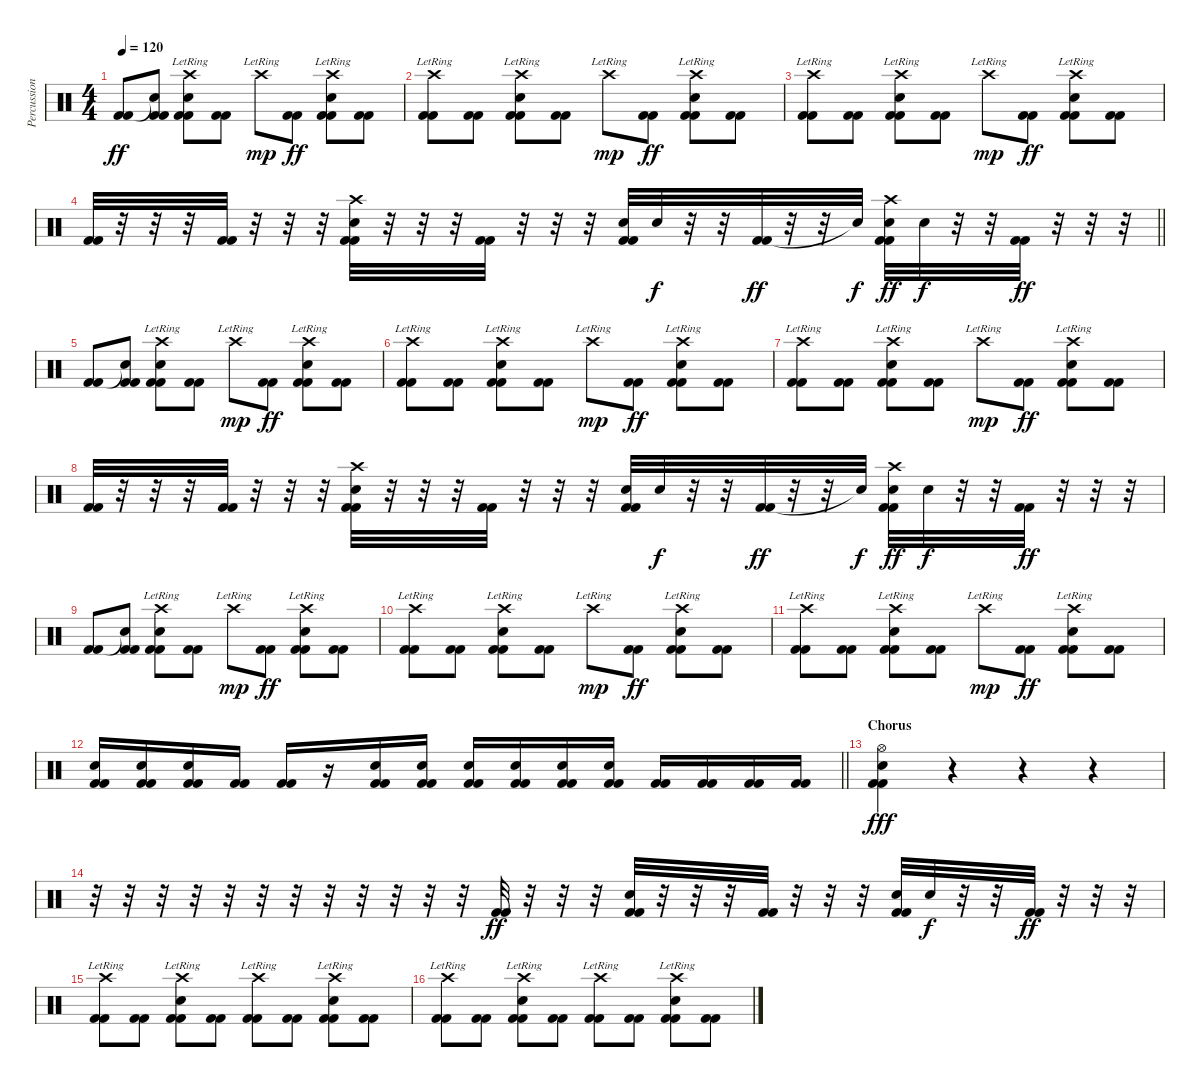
\track ("Percussion" "Percussion") {instrument percussion}
\staff {score}
\articulation defaults
\ts (4 4)
\tempo 120
\clef neutral
\ks c
("Kick (hit) 2" "Kick (hit) 2").8{dy ff} ("Snare (hit)"{t} "Kick (hit) 2" "Kick (hit) 2").8 ("Crash high (hit)"{lr} "Snare (hit) 2" "Kick (hit) 2" "Kick (hit) 2").8 ("Kick (hit) 2" "Kick (hit) 2").8 "Crash high (hit)"{lr}.8{dy mp} ("Kick (hit) 2" "Kick (hit) 2").8{dy ff} ("Crash high (hit)"{lr} "Snare (hit) 2" "Kick (hit) 2" "Kick (hit) 2").8 ("Kick (hit) 2" "Kick (hit) 2").8 |
("Crash high (hit)"{lr} "Kick (hit) 2" "Kick (hit) 2").8 ("Kick (hit) 2" "Kick (hit) 2").8 ("Crash high (hit)"{lr} "Snare (hit) 2" "Kick (hit) 2" "Kick (hit) 2").8 ("Kick (hit) 2" "Kick (hit) 2").8 "Crash high (hit)"{lr}.8{dy mp} ("Kick (hit) 2" "Kick (hit) 2").8{dy ff} ("Crash high (hit)"{lr} "Snare (hit) 2" "Kick (hit) 2" "Kick (hit) 2").8 ("Kick (hit) 2" "Kick (hit) 2").8 |
("Crash high (hit)"{lr} "Kick (hit) 2" "Kick (hit) 2").8 ("Kick (hit) 2" "Kick (hit) 2").8 ("Crash high (hit)"{lr} "Snare (hit) 2" "Kick (hit) 2" "Kick (hit) 2").8 ("Kick (hit) 2" "Kick (hit) 2").8 "Crash high (hit)"{lr}.8{dy mp} ("Kick (hit) 2" "Kick (hit) 2").8{dy ff} ("Crash high (hit)"{lr} "Snare (hit) 2" "Kick (hit) 2" "Kick (hit) 2").8 ("Kick (hit) 2" "Kick (hit) 2").8 |
\barLineRight lightlight
("Kick (hit) 2" "Kick (hit) 2").32 r.32 r.32 r.32 ("Kick (hit) 2" "Kick (hit) 2").32 r.32 r.32 r.32 ("Crash high (hit)" "Snare (hit) 2" "Kick (hit) 2" "Kick (hit) 2").32 r.32 r.32 r.32 ("Kick (hit) 2" "Kick (hit) 2").32 r.32 r.32 r.32 ("Snare (hit) 2" "Kick (hit) 2" "Kick (hit) 2").32 "Snare (hit) 2".32{dy f} r.32 r.32 ("Kick (hit) 2" "Kick (hit) 2").32{dy ff} r.32 r.32 "Snare (hit)"{t}.32{dy f} ("Crash high (hit)" "Snare (hit) 2" "Kick (hit) 2" "Kick (hit) 2").32{dy ff} "Snare (hit) 2".32{dy f} r.32 r.32 ("Kick (hit) 2" "Kick (hit) 2").32{dy ff} r.32 r.32 r.32 |
("Kick (hit) 2" "Kick (hit) 2").8 ("Snare (hit)"{t} "Kick (hit) 2" "Kick (hit) 2").8 ("Crash high (hit)"{lr} "Snare (hit) 2" "Kick (hit) 2" "Kick (hit) 2").8 ("Kick (hit) 2" "Kick (hit) 2").8 "Crash high (hit)"{lr}.8{dy mp} ("Kick (hit) 2" "Kick (hit) 2").8{dy ff} ("Crash high (hit)"{lr} "Snare (hit) 2" "Kick (hit) 2" "Kick (hit) 2").8 ("Kick (hit) 2" "Kick (hit) 2").8 |
("Crash high (hit)"{lr} "Kick (hit) 2" "Kick (hit) 2").8 ("Kick (hit) 2" "Kick (hit) 2").8 ("Crash high (hit)"{lr} "Snare (hit) 2" "Kick (hit) 2" "Kick (hit) 2").8 ("Kick (hit) 2" "Kick (hit) 2").8 "Crash high (hit)"{lr}.8{dy mp} ("Kick (hit) 2" "Kick (hit) 2").8{dy ff} ("Crash high (hit)"{lr} "Snare (hit) 2" "Kick (hit) 2" "Kick (hit) 2").8 ("Kick (hit) 2" "Kick (hit) 2").8 |
("Crash high (hit)"{lr} "Kick (hit) 2" "Kick (hit) 2").8 ("Kick (hit) 2" "Kick (hit) 2").8 ("Crash high (hit)"{lr} "Snare (hit) 2" "Kick (hit) 2" "Kick (hit) 2").8 ("Kick (hit) 2" "Kick (hit) 2").8 "Crash high (hit)"{lr}.8{dy mp} ("Kick (hit) 2" "Kick (hit) 2").8{dy ff} ("Crash high (hit)"{lr} "Snare (hit) 2" "Kick (hit) 2" "Kick (hit) 2").8 ("Kick (hit) 2" "Kick (hit) 2").8 |
("Kick (hit) 2" "Kick (hit) 2").32 r.32 r.32 r.32 ("Kick (hit) 2" "Kick (hit) 2").32 r.32 r.32 r.32 ("Crash high (hit)" "Snare (hit) 2" "Kick (hit) 2" "Kick (hit) 2").32 r.32 r.32 r.32 ("Kick (hit) 2" "Kick (hit) 2").32 r.32 r.32 r.32 ("Snare (hit) 2" "Kick (hit) 2" "Kick (hit) 2").32 "Snare (hit) 2".32{dy f} r.32 r.32 ("Kick (hit) 2" "Kick (hit) 2").32{dy ff} r.32 r.32 "Snare (hit)"{t}.32{dy f} ("Crash high (hit)" "Snare (hit) 2" "Kick (hit) 2" "Kick (hit) 2").32{dy ff} "Snare (hit) 2".32{dy f} r.32 r.32 ("Kick (hit) 2" "Kick (hit) 2").32{dy ff} r.32 r.32 r.32 |
("Kick (hit) 2" "Kick (hit) 2").8 ("Snare (hit)"{t} "Kick (hit) 2" "Kick (hit) 2").8 ("Crash high (hit)"{lr} "Snare (hit) 2" "Kick (hit) 2" "Kick (hit) 2").8 ("Kick (hit) 2" "Kick (hit) 2").8 "Crash high (hit)"{lr}.8{dy mp} ("Kick (hit) 2" "Kick (hit) 2").8{dy ff} ("Crash high (hit)"{lr} "Snare (hit) 2" "Kick (hit) 2" "Kick (hit) 2").8 ("Kick (hit) 2" "Kick (hit) 2").8 |
("Crash high (hit)"{lr} "Kick (hit) 2" "Kick (hit) 2").8 ("Kick (hit) 2" "Kick (hit) 2").8 ("Crash high (hit)"{lr} "Snare (hit) 2" "Kick (hit) 2" "Kick (hit) 2").8 ("Kick (hit) 2" "Kick (hit) 2").8 "Crash high (hit)"{lr}.8{dy mp} ("Kick (hit) 2" "Kick (hit) 2").8{dy ff} ("Crash high (hit)"{lr} "Snare (hit) 2" "Kick (hit) 2" "Kick (hit) 2").8 ("Kick (hit) 2" "Kick (hit) 2").8 |
("Crash high (hit)"{lr} "Kick (hit) 2" "Kick (hit) 2").8 ("Kick (hit) 2" "Kick (hit) 2").8 ("Crash high (hit)"{lr} "Snare (hit) 2" "Kick (hit) 2" "Kick (hit) 2").8 ("Kick (hit) 2" "Kick (hit) 2").8 "Crash high (hit)"{lr}.8{dy mp} ("Kick (hit) 2" "Kick (hit) 2").8{dy ff} ("Crash high (hit)"{lr} "Snare (hit) 2" "Kick (hit) 2" "Kick (hit) 2").8 ("Kick (hit) 2" "Kick (hit) 2").8 |
\barLineRight lightlight
("Snare (hit) 2" "Kick (hit) 2" "Kick (hit) 2").16 ("Snare (hit) 2" "Kick (hit) 2" "Kick (hit) 2").16 ("Snare (hit) 2" "Kick (hit) 2" "Kick (hit) 2").16 ("Kick (hit) 2" "Kick (hit) 2").16 ("Kick (hit) 2" "Kick (hit) 2").16 r.16 ("Snare (hit) 2" "Kick (hit) 2" "Kick (hit) 2").16 ("Snare (hit) 2" "Kick (hit) 2" "Kick (hit) 2").16 ("Snare (hit) 2" "Kick (hit) 2" "Kick (hit) 2").16 ("Snare (hit) 2" "Kick (hit) 2" "Kick (hit) 2").16 ("Snare (hit) 2" "Kick (hit) 2" "Kick (hit) 2").16 ("Snare (hit) 2" "Kick (hit) 2" "Kick (hit) 2").16 ("Kick (hit) 2" "Kick (hit) 2").16 ("Kick (hit) 2" "Kick (hit) 2").16 ("Kick (hit) 2" "Kick (hit) 2").16 ("Kick (hit) 2" "Kick (hit) 2").16 |
\section ("" "Chorus")
("Hi-Hat (open)" "Snare (hit) 2" "Kick (hit) 2" "Kick (hit) 2").4{dy fff} r.4 r.4 r.4 |
r.32 r.32 r.32 r.32 r.32 r.32 r.32 r.32 r.32 r.32 r.32 r.32 ("Kick (hit) 2" "Kick (hit) 2").32{dy ff} r.32 r.32 r.32 ("Snare (hit) 2" "Kick (hit) 2" "Kick (hit) 2").32 r.32 r.32 r.32 ("Kick (hit) 2" "Kick (hit) 2").32 r.32 r.32 r.32 ("Snare (hit) 2" "Kick (hit) 2" "Kick (hit) 2").32 "Snare (hit) 2".32{dy f} r.32 r.32 ("Kick (hit) 2" "Kick (hit) 2").32{dy ff} r.32 r.32 r.32 |
("Crash high (hit)"{lr} "Kick (hit) 2" "Kick (hit) 2").8 ("Kick (hit) 2" "Kick (hit) 2").8 ("Crash high (hit)"{lr} "Snare (hit) 2" "Kick (hit) 2" "Kick (hit) 2").8 ("Kick (hit) 2" "Kick (hit) 2").8 ("Crash high (hit)"{lr} "Kick (hit) 2" "Kick (hit) 2").8 ("Kick (hit) 2" "Kick (hit) 2").8 ("Crash high (hit)"{lr} "Snare (hit) 2" "Kick (hit) 2" "Kick (hit) 2").8 ("Kick (hit) 2" "Kick (hit) 2").8 |
("Crash high (hit)"{lr} "Kick (hit) 2" "Kick (hit) 2").8 ("Kick (hit) 2" "Kick (hit) 2").8 ("Crash high (hit)"{lr} "Snare (hit) 2" "Kick (hit) 2" "Kick (hit) 2").8 ("Kick (hit) 2" "Kick (hit) 2").8 ("Crash high (hit)"{lr} "Kick (hit) 2" "Kick (hit) 2").8 ("Kick (hit) 2" "Kick (hit) 2").8 ("Crash high (hit)"{lr} "Snare (hit) 2" "Kick (hit) 2" "Kick (hit) 2").8 ("Kick (hit) 2" "Kick (hit) 2").8
